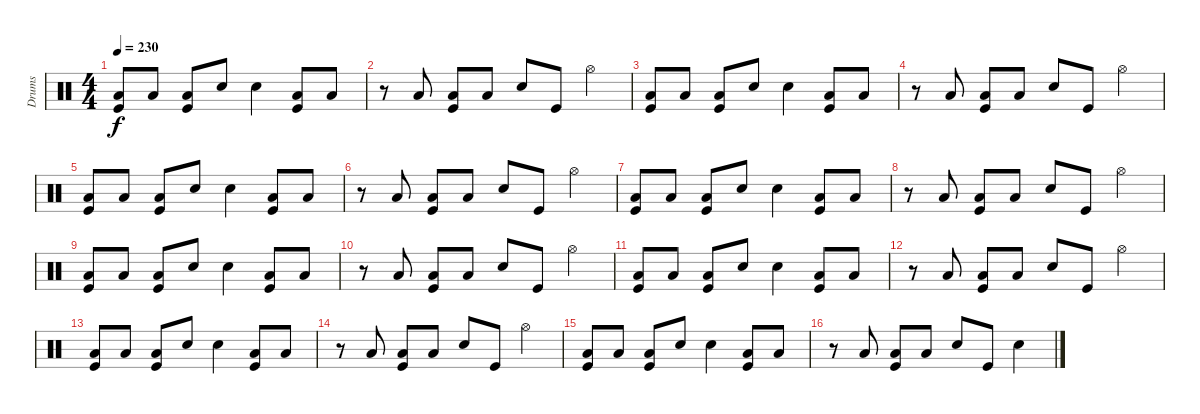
\track ("Drums" "Drums") {instrument percussion}
\staff {score}
\articulation defaults
\ts (4 4)
\tempo 230
\clef neutral
\ks c
("Low Floor Tom (hit)" "Kick (hit)").8{dy f} "Low Floor Tom (hit)".8 ("Low Floor Tom (hit)" "Kick (hit)").8 "Electric Snare (hit)".8 "Electric Snare (hit)".4 ("Low Floor Tom (hit)" "Kick (hit)").8 "Low Floor Tom (hit)".8 |
r.8 "Low Floor Tom (hit)".8 ("Low Floor Tom (hit)" "Kick (hit)").8 "Low Floor Tom (hit)".8 "Electric Snare (hit)".8 "Kick (hit)".8 "Hi-Hat (open)".4 |
("Low Floor Tom (hit)" "Kick (hit)").8 "Low Floor Tom (hit)".8 ("Low Floor Tom (hit)" "Kick (hit)").8 "Electric Snare (hit)".8 "Electric Snare (hit)".4 ("Low Floor Tom (hit)" "Kick (hit)").8 "Low Floor Tom (hit)".8 |
r.8 "Low Floor Tom (hit)".8 ("Low Floor Tom (hit)" "Kick (hit)").8 "Low Floor Tom (hit)".8 "Electric Snare (hit)".8 "Kick (hit)".8 "Hi-Hat (open)".4 |
("Low Floor Tom (hit)" "Kick (hit)").8 "Low Floor Tom (hit)".8 ("Low Floor Tom (hit)" "Kick (hit)").8 "Electric Snare (hit)".8 "Electric Snare (hit)".4 ("Low Floor Tom (hit)" "Kick (hit)").8 "Low Floor Tom (hit)".8 |
r.8 "Low Floor Tom (hit)".8 ("Low Floor Tom (hit)" "Kick (hit)").8 "Low Floor Tom (hit)".8 "Electric Snare (hit)".8 "Kick (hit)".8 "Hi-Hat (open)".4 |
("Low Floor Tom (hit)" "Kick (hit)").8 "Low Floor Tom (hit)".8 ("Low Floor Tom (hit)" "Kick (hit)").8 "Electric Snare (hit)".8 "Electric Snare (hit)".4 ("Low Floor Tom (hit)" "Kick (hit)").8 "Low Floor Tom (hit)".8 |
r.8 "Low Floor Tom (hit)".8 ("Low Floor Tom (hit)" "Kick (hit)").8 "Low Floor Tom (hit)".8 "Electric Snare (hit)".8 "Kick (hit)".8 "Hi-Hat (open)".4 |
("Low Floor Tom (hit)" "Kick (hit)").8 "Low Floor Tom (hit)".8 ("Low Floor Tom (hit)" "Kick (hit)").8 "Electric Snare (hit)".8 "Electric Snare (hit)".4 ("Low Floor Tom (hit)" "Kick (hit)").8 "Low Floor Tom (hit)".8 |
r.8 "Low Floor Tom (hit)".8 ("Low Floor Tom (hit)" "Kick (hit)").8 "Low Floor Tom (hit)".8 "Electric Snare (hit)".8 "Kick (hit)".8 "Hi-Hat (open)".4 |
("Low Floor Tom (hit)" "Kick (hit)").8 "Low Floor Tom (hit)".8 ("Low Floor Tom (hit)" "Kick (hit)").8 "Electric Snare (hit)".8 "Electric Snare (hit)".4 ("Low Floor Tom (hit)" "Kick (hit)").8 "Low Floor Tom (hit)".8 |
r.8 "Low Floor Tom (hit)".8 ("Low Floor Tom (hit)" "Kick (hit)").8 "Low Floor Tom (hit)".8 "Electric Snare (hit)".8 "Kick (hit)".8 "Hi-Hat (open)".4 |
("Low Floor Tom (hit)" "Kick (hit)").8 "Low Floor Tom (hit)".8 ("Low Floor Tom (hit)" "Kick (hit)").8 "Electric Snare (hit)".8 "Electric Snare (hit)".4 ("Low Floor Tom (hit)" "Kick (hit)").8 "Low Floor Tom (hit)".8 |
r.8 "Low Floor Tom (hit)".8 ("Low Floor Tom (hit)" "Kick (hit)").8 "Low Floor Tom (hit)".8 "Electric Snare (hit)".8 "Kick (hit)".8 "Hi-Hat (open)".4 |
("Low Floor Tom (hit)" "Kick (hit)").8 "Low Floor Tom (hit)".8 ("Low Floor Tom (hit)" "Kick (hit)").8 "Electric Snare (hit)".8 "Electric Snare (hit)".4 ("Low Floor Tom (hit)" "Kick (hit)").8 "Low Floor Tom (hit)".8 |
r.8 "Low Floor Tom (hit)".8 ("Low Floor Tom (hit)" "Kick (hit)").8 "Low Floor Tom (hit)".8 "Electric Snare (hit)".8 "Kick (hit)".8 "Electric Snare (hit)".4
